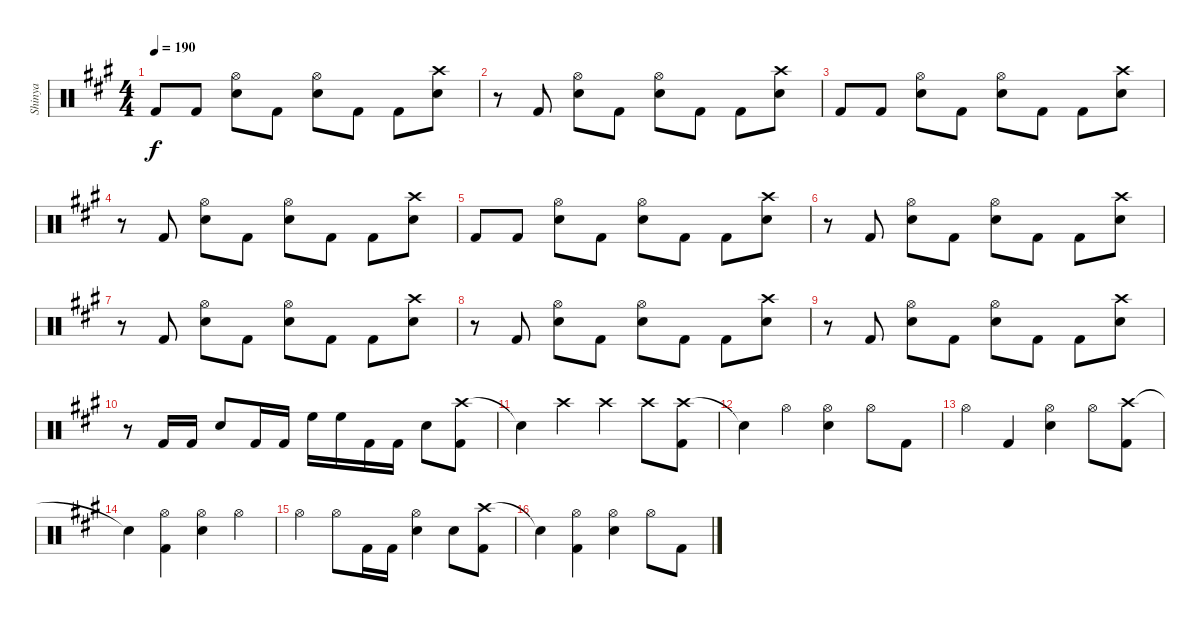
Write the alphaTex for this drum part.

\track ("Shinya" "Shinya") {instrument percussion}
\staff {score}
\articulation defaults
\ts (4 4)
\tempo 190
\clef neutral
\ks a "Kick (hit) 2".8{dy f} "Kick (hit) 2".8
("Hi-Hat (open)" "Snare (hit) 2").8 "Kick (hit) 2".8 ("Hi-Hat (open)" "Snare (hit) 2").8 "Kick (hit) 2".8 "Kick (hit) 2".8 ("Crash high (hit)" "Snare (hit) 2").8 |
r.8 "Kick (hit) 2".8 ("Hi-Hat (open)" "Snare (hit) 2").8 "Kick (hit) 2".8 ("Hi-Hat (open)" "Snare (hit) 2").8 "Kick (hit) 2".8 "Kick (hit) 2".8 ("Crash high (hit)" "Snare (hit) 2").8 |
"Kick (hit) 2".8 "Kick (hit) 2".8 ("Hi-Hat (open)" "Snare (hit) 2").8 "Kick (hit) 2".8 ("Hi-Hat (open)" "Snare (hit) 2").8 "Kick (hit) 2".8 "Kick (hit) 2".8 ("Crash high (hit)" "Snare (hit) 2").8 |
r.8 "Kick (hit) 2".8 ("Hi-Hat (open)" "Snare (hit) 2").8 "Kick (hit) 2".8 ("Hi-Hat (open)" "Snare (hit) 2").8 "Kick (hit) 2".8 "Kick (hit) 2".8 ("Crash high (hit)" "Snare (hit) 2").8 |
"Kick (hit) 2".8 "Kick (hit) 2".8 ("Hi-Hat (open)" "Snare (hit) 2").8 "Kick (hit) 2".8 ("Hi-Hat (open)" "Snare (hit) 2").8 "Kick (hit) 2".8 "Kick (hit) 2".8 ("Crash high (hit)" "Snare (hit) 2").8 |
r.8 "Kick (hit) 2".8 ("Hi-Hat (open)" "Snare (hit) 2").8 "Kick (hit) 2".8 ("Hi-Hat (open)" "Snare (hit) 2").8 "Kick (hit) 2".8 "Kick (hit) 2".8 ("Crash high (hit)" "Snare (hit) 2").8 |
r.8 "Kick (hit) 2".8 ("Hi-Hat (open)" "Snare (hit) 2").8 "Kick (hit) 2".8 ("Hi-Hat (open)" "Snare (hit) 2").8 "Kick (hit) 2".8 "Kick (hit) 2".8 ("Crash high (hit)" "Snare (hit) 2").8 |
r.8 "Kick (hit) 2".8 ("Hi-Hat (open)" "Snare (hit) 2").8 "Kick (hit) 2".8 ("Hi-Hat (open)" "Snare (hit) 2").8 "Kick (hit) 2".8 "Kick (hit) 2".8 ("Crash high (hit)" "Snare (hit) 2").8 |
r.8 "Kick (hit) 2".8 ("Hi-Hat (open)" "Snare (hit) 2").8 "Kick (hit) 2".8 ("Hi-Hat (open)" "Snare (hit) 2").8 "Kick (hit) 2".8 "Kick (hit) 2".8 ("Crash high (hit)" "Snare (hit) 2").8 |
r.8 "Kick (hit) 2".16 "Kick (hit) 2".16 "Snare (hit) 2".8 "Kick (hit) 2".16 "Kick (hit) 2".16 "High Floor Tom (hit)".16 "High Floor Tom (hit)".16 "Kick (hit) 2".16 "Kick (hit) 2".16 "Snare (hit) 2".8 ("Crash high (hit)" "Kick (hit) 2").8 |
"Snare (hit)"{t}.4 "Crash high (hit)".4 "Crash high (hit)".4 "Crash high (hit)".8 ("Crash high (hit)" "Kick (hit) 2").8 |
"Snare (hit)"{t}.4 "Hi-Hat (open)".4 ("Hi-Hat (open)" "Snare (hit) 2").4 "Hi-Hat (open)".8 "Kick (hit) 2".8 |
"Hi-Hat (open)".4 "Kick (hit) 2".4 ("Hi-Hat (open)" "Snare (hit) 2").4 "Hi-Hat (open)".8 ("Crash high (hit)" "Kick (hit) 2").8 |
"Snare (hit)"{t}.4 ("Hi-Hat (open)" "Kick (hit) 2").4 ("Hi-Hat (open)" "Snare (hit) 2").4 "Hi-Hat (open)".4 |
"Hi-Hat (open)".4 "Hi-Hat (open)".8 "Kick (hit) 2".16 "Kick (hit) 2".16 ("Hi-Hat (open)" "Snare (hit) 2").4 "Snare (hit) 2".8 ("Crash high (hit)" "Kick (hit) 2").8 |
"Snare (hit)"{t}.4 ("Hi-Hat (open)" "Kick (hit) 2").4 ("Hi-Hat (open)" "Snare (hit) 2").4 "Hi-Hat (open)".8 "Kick (hit) 2".8
